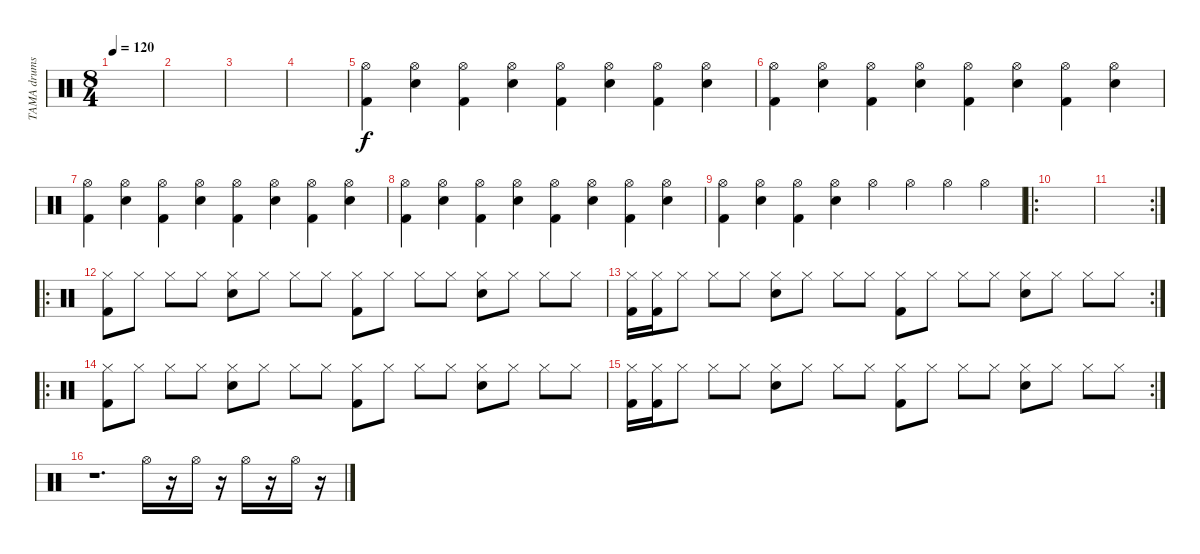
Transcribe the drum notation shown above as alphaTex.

\track ("TAMA drums" "TAMA drums") {instrument percussion}
\staff {score}
\articulation defaults
\ts (8 4)
\tempo 120
\clef neutral
\ks c
|
|
|
|
("Kick (hit) 2" "Hi-Hat (open)").4 ("Electric Snare (hit)" "Hi-Hat (open)").4 ("Kick (hit) 2" "Hi-Hat (open)").4 ("Electric Snare (hit)" "Hi-Hat (open)").4 ("Kick (hit) 2" "Hi-Hat (open)").4 ("Electric Snare (hit)" "Hi-Hat (open)").4 ("Kick (hit) 2" "Hi-Hat (open)").4 ("Electric Snare (hit)" "Hi-Hat (open)").4 |
("Kick (hit) 2" "Hi-Hat (open)").4 ("Electric Snare (hit)" "Hi-Hat (open)").4 ("Kick (hit) 2" "Hi-Hat (open)").4 ("Electric Snare (hit)" "Hi-Hat (open)").4 ("Kick (hit) 2" "Hi-Hat (open)").4 ("Electric Snare (hit)" "Hi-Hat (open)").4 ("Kick (hit) 2" "Hi-Hat (open)").4 ("Electric Snare (hit)" "Hi-Hat (open)").4 |
("Kick (hit) 2" "Hi-Hat (open)").4 ("Electric Snare (hit)" "Hi-Hat (open)").4 ("Kick (hit) 2" "Hi-Hat (open)").4 ("Electric Snare (hit)" "Hi-Hat (open)").4 ("Kick (hit) 2" "Hi-Hat (open)").4 ("Electric Snare (hit)" "Hi-Hat (open)").4 ("Kick (hit) 2" "Hi-Hat (open)").4 ("Electric Snare (hit)" "Hi-Hat (open)").4 |
("Kick (hit) 2" "Hi-Hat (open)").4 ("Electric Snare (hit)" "Hi-Hat (open)").4 ("Kick (hit) 2" "Hi-Hat (open)").4 ("Electric Snare (hit)" "Hi-Hat (open)").4 ("Kick (hit) 2" "Hi-Hat (open)").4 ("Electric Snare (hit)" "Hi-Hat (open)").4 ("Kick (hit) 2" "Hi-Hat (open)").4 ("Electric Snare (hit)" "Hi-Hat (open)").4 |
("Kick (hit) 2" "Hi-Hat (open)").4 ("Electric Snare (hit)" "Hi-Hat (open)").4 ("Kick (hit) 2" "Hi-Hat (open)").4 ("Electric Snare (hit)" "Hi-Hat (open)").4 "Hi-Hat (open)".4 "Hi-Hat (open)".4 "Hi-Hat (open)".4 "Hi-Hat (open)".4 |
\ro
|
\rc 2
|
\ro
("Hi-Hat (closed)" "Kick (hit) 2").8 "Hi-Hat (closed)".8 "Hi-Hat (closed)".8 "Hi-Hat (closed)".8 ("Hi-Hat (closed)" "Electric Snare (hit)").8 "Hi-Hat (closed)".8 "Hi-Hat (closed)".8 "Hi-Hat (closed)".8 ("Hi-Hat (closed)" "Kick (hit) 2").8 "Hi-Hat (closed)".8 "Hi-Hat (closed)".8 "Hi-Hat (closed)".8 ("Hi-Hat (closed)" "Electric Snare (hit)").8 "Hi-Hat (closed)".8 "Hi-Hat (closed)".8 "Hi-Hat (closed)".8 |
\rc 2
("Hi-Hat (closed)" "Kick (hit) 2").16 ("Hi-Hat (closed)" "Kick (hit) 2").16 "Hi-Hat (closed)".8 "Hi-Hat (closed)".8 "Hi-Hat (closed)".8 ("Hi-Hat (closed)" "Electric Snare (hit)").8 "Hi-Hat (closed)".8 "Hi-Hat (closed)".8 "Hi-Hat (closed)".8 ("Hi-Hat (closed)" "Kick (hit) 2").8 "Hi-Hat (closed)".8 "Hi-Hat (closed)".8 "Hi-Hat (closed)".8 ("Hi-Hat (closed)" "Electric Snare (hit)").8 "Hi-Hat (closed)".8 "Hi-Hat (closed)".8 "Hi-Hat (closed)".8 |
\ro
("Hi-Hat (closed)" "Kick (hit) 2").8 "Hi-Hat (closed)".8 "Hi-Hat (closed)".8 "Hi-Hat (closed)".8 ("Hi-Hat (closed)" "Electric Snare (hit)").8 "Hi-Hat (closed)".8 "Hi-Hat (closed)".8 "Hi-Hat (closed)".8 ("Hi-Hat (closed)" "Kick (hit) 2").8 "Hi-Hat (closed)".8 "Hi-Hat (closed)".8 "Hi-Hat (closed)".8 ("Hi-Hat (closed)" "Electric Snare (hit)").8 "Hi-Hat (closed)".8 "Hi-Hat (closed)".8 "Hi-Hat (closed)".8 |
\rc 2
("Hi-Hat (closed)" "Kick (hit) 2").16 ("Hi-Hat (closed)" "Kick (hit) 2").16 "Hi-Hat (closed)".8 "Hi-Hat (closed)".8 "Hi-Hat (closed)".8 ("Hi-Hat (closed)" "Electric Snare (hit)").8 "Hi-Hat (closed)".8 "Hi-Hat (closed)".8 "Hi-Hat (closed)".8 ("Hi-Hat (closed)" "Kick (hit) 2").8 "Hi-Hat (closed)".8 "Hi-Hat (closed)".8 "Hi-Hat (closed)".8 ("Hi-Hat (closed)" "Electric Snare (hit)").8 "Hi-Hat (closed)".8 "Hi-Hat (closed)".8 "Hi-Hat (closed)".8 |
r.1{d} "Hi-Hat (open)".16 r.16 "Hi-Hat (open)".16 r.16 "Hi-Hat (open)".16 r.16 "Hi-Hat (open)".16 r.16
